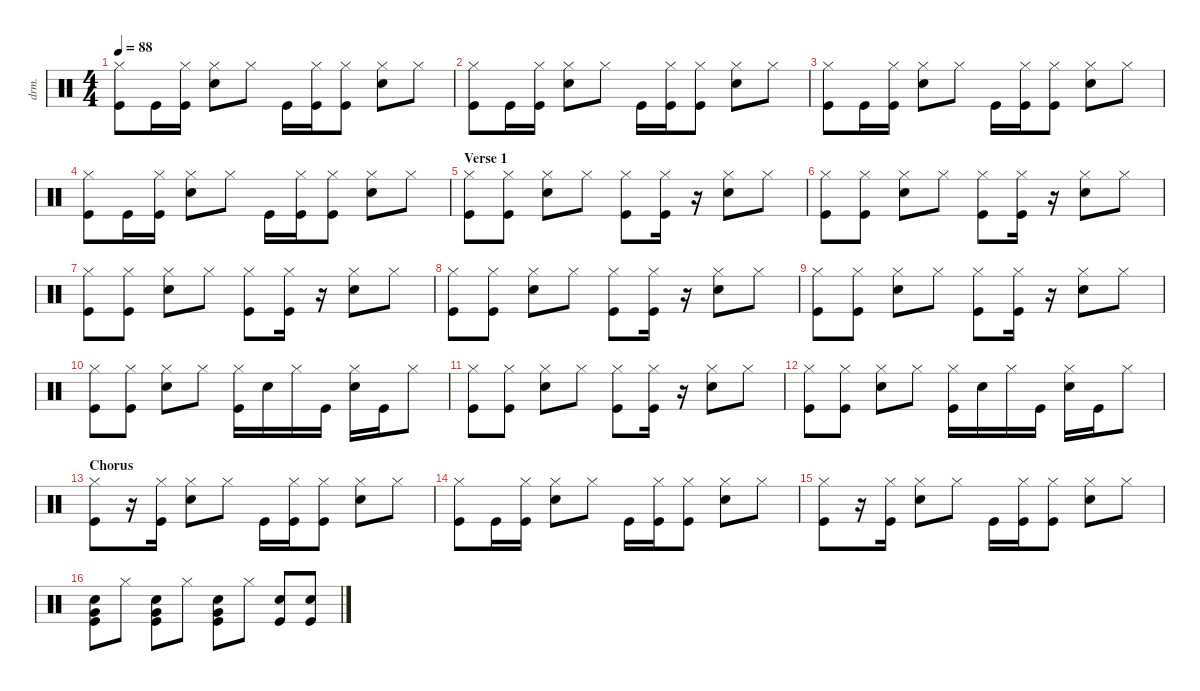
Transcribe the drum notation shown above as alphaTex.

\defaultSystemsLayout 4
\hideDynamics
\bracketExtendMode nobrackets
\otherSystemsTrackNameOrientation horizontal
\track ("Drums" "drm.") {instrument percussion}
\staff {score}
\articulation defaults
\ts (4 4)
\tempo 88
\clef neutral
\ks c
("Hi-Hat (closed)" "Kick (hit)").8{dy f} "Kick (hit)".16 ("Hi-Hat (closed)" "Kick (hit)").16 ("Hi-Hat (closed)" "Snare (hit) 2").8 "Hi-Hat (closed)".8 "Kick (hit)".16 ("Hi-Hat (closed)" "Kick (hit)").16 ("Hi-Hat (closed)" "Kick (hit)").8 ("Hi-Hat (closed)" "Snare (hit) 2").8 "Hi-Hat (closed)".8 |
("Hi-Hat (closed)" "Kick (hit)").8 "Kick (hit)".16 ("Hi-Hat (closed)" "Kick (hit)").16 ("Hi-Hat (closed)" "Snare (hit) 2").8 "Hi-Hat (closed)".8 "Kick (hit)".16 ("Hi-Hat (closed)" "Kick (hit)").16 ("Hi-Hat (closed)" "Kick (hit)").8 ("Hi-Hat (closed)" "Snare (hit) 2").8 "Hi-Hat (closed)".8 |
("Hi-Hat (closed)" "Kick (hit)").8 "Kick (hit)".16 ("Hi-Hat (closed)" "Kick (hit)").16 ("Hi-Hat (closed)" "Snare (hit) 2").8 "Hi-Hat (closed)".8 "Kick (hit)".16 ("Hi-Hat (closed)" "Kick (hit)").16 ("Hi-Hat (closed)" "Kick (hit)").8 ("Hi-Hat (closed)" "Snare (hit) 2").8 "Hi-Hat (closed)".8 |
("Hi-Hat (closed)" "Kick (hit)").8 "Kick (hit)".16 ("Hi-Hat (closed)" "Kick (hit)").16 ("Hi-Hat (closed)" "Snare (hit) 2").8 "Hi-Hat (closed)".8 "Kick (hit)".16 ("Hi-Hat (closed)" "Kick (hit)").16 ("Hi-Hat (closed)" "Kick (hit)").8 ("Hi-Hat (closed)" "Snare (hit) 2").8 "Hi-Hat (closed)".8 |
\section ("" "Verse 1")
("Hi-Hat (closed)" "Kick (hit)").8 ("Hi-Hat (closed)" "Kick (hit)").8 ("Hi-Hat (closed)" "Snare (hit) 2").8 "Hi-Hat (closed)".8 ("Hi-Hat (closed)" "Kick (hit)").8 ("Hi-Hat (closed)" "Kick (hit)").16 r.16 ("Hi-Hat (closed)" "Snare (hit) 2").8 "Hi-Hat (closed)".8 |
("Hi-Hat (closed)" "Kick (hit)").8 ("Hi-Hat (closed)" "Kick (hit)").8 ("Hi-Hat (closed)" "Snare (hit) 2").8 "Hi-Hat (closed)".8 ("Hi-Hat (closed)" "Kick (hit)").8 ("Hi-Hat (closed)" "Kick (hit)").16 r.16 ("Hi-Hat (closed)" "Snare (hit) 2").8 "Hi-Hat (closed)".8 |
("Hi-Hat (closed)" "Kick (hit)").8 ("Hi-Hat (closed)" "Kick (hit)").8 ("Hi-Hat (closed)" "Snare (hit) 2").8 "Hi-Hat (closed)".8 ("Hi-Hat (closed)" "Kick (hit)").8 ("Hi-Hat (closed)" "Kick (hit)").16 r.16 ("Hi-Hat (closed)" "Snare (hit) 2").8 "Hi-Hat (closed)".8 |
("Hi-Hat (closed)" "Kick (hit)").8 ("Hi-Hat (closed)" "Kick (hit)").8 ("Hi-Hat (closed)" "Snare (hit) 2").8 "Hi-Hat (closed)".8 ("Hi-Hat (closed)" "Kick (hit)").8 ("Hi-Hat (closed)" "Kick (hit)").16 r.16 ("Hi-Hat (closed)" "Snare (hit) 2").8 "Hi-Hat (closed)".8 |
("Hi-Hat (closed)" "Kick (hit)").8 ("Hi-Hat (closed)" "Kick (hit)").8 ("Hi-Hat (closed)" "Snare (hit) 2").8 "Hi-Hat (closed)".8 ("Hi-Hat (closed)" "Kick (hit)").8 ("Hi-Hat (closed)" "Kick (hit)").16 r.16 ("Hi-Hat (closed)" "Snare (hit) 2").8 "Hi-Hat (closed)".8 |
("Hi-Hat (closed)" "Kick (hit)").8 ("Hi-Hat (closed)" "Kick (hit)").8 ("Hi-Hat (closed)" "Snare (hit) 2").8 "Hi-Hat (closed)".8 ("Hi-Hat (closed)" "Kick (hit)").16 "Snare (hit) 2".16 "Hi-Hat (closed)".16 "Kick (hit)".16 ("Hi-Hat (closed)" "Snare (hit) 2").16 "Kick (hit)".16 "Hi-Hat (closed)".8 |
("Hi-Hat (closed)" "Kick (hit)").8 ("Hi-Hat (closed)" "Kick (hit)").8 ("Hi-Hat (closed)" "Snare (hit) 2").8 "Hi-Hat (closed)".8 ("Hi-Hat (closed)" "Kick (hit)").8 ("Hi-Hat (closed)" "Kick (hit)").16 r.16 ("Hi-Hat (closed)" "Snare (hit) 2").8 "Hi-Hat (closed)".8 |
("Hi-Hat (closed)" "Kick (hit)").8 ("Hi-Hat (closed)" "Kick (hit)").8 ("Hi-Hat (closed)" "Snare (hit) 2").8 "Hi-Hat (closed)".8 ("Hi-Hat (closed)" "Kick (hit)").16 "Snare (hit) 2".16 "Hi-Hat (closed)".16 "Kick (hit)".16 ("Hi-Hat (closed)" "Snare (hit) 2").16 "Kick (hit)".16 "Hi-Hat (closed)".8 |
\section ("" "Chorus")
("Hi-Hat (closed)" "Kick (hit)").8 r.16 ("Hi-Hat (closed)" "Kick (hit)").16 ("Hi-Hat (closed)" "Snare (hit) 2").8 "Hi-Hat (closed)".8 "Kick (hit)".16 ("Hi-Hat (closed)" "Kick (hit)").16 ("Hi-Hat (closed)" "Kick (hit)").8 ("Hi-Hat (closed)" "Snare (hit) 2").8 "Hi-Hat (closed)".8 |
("Hi-Hat (closed)" "Kick (hit)").8 "Kick (hit)".16 ("Hi-Hat (closed)" "Kick (hit)").16 ("Hi-Hat (closed)" "Snare (hit) 2").8 "Hi-Hat (closed)".8 "Kick (hit)".16 ("Hi-Hat (closed)" "Kick (hit)").16 ("Hi-Hat (closed)" "Kick (hit)").8 ("Hi-Hat (closed)" "Snare (hit) 2").8 "Hi-Hat (closed)".8 |
("Hi-Hat (closed)" "Kick (hit)").8 r.16 ("Hi-Hat (closed)" "Kick (hit)").16 ("Hi-Hat (closed)" "Snare (hit) 2").8 "Hi-Hat (closed)".8 "Kick (hit)".16 ("Hi-Hat (closed)" "Kick (hit)").16 ("Hi-Hat (closed)" "Kick (hit)").8 ("Hi-Hat (closed)" "Snare (hit) 2").8 "Hi-Hat (closed)".8 |
("Very Low Tom (hit)" "Snare (hit) 2" "Kick (hit)").8 "Hi-Hat (closed)".8 ("Snare (hit) 2" "Kick (hit)" "Very Low Tom (hit)").8 "Hi-Hat (closed)".8 ("Snare (hit) 2" "Kick (hit)" "Very Low Tom (hit)").8 "Hi-Hat (closed)".8 ("Snare (hit) 2" "Kick (hit)").8 ("Snare (hit) 2" "Kick (hit)").8
